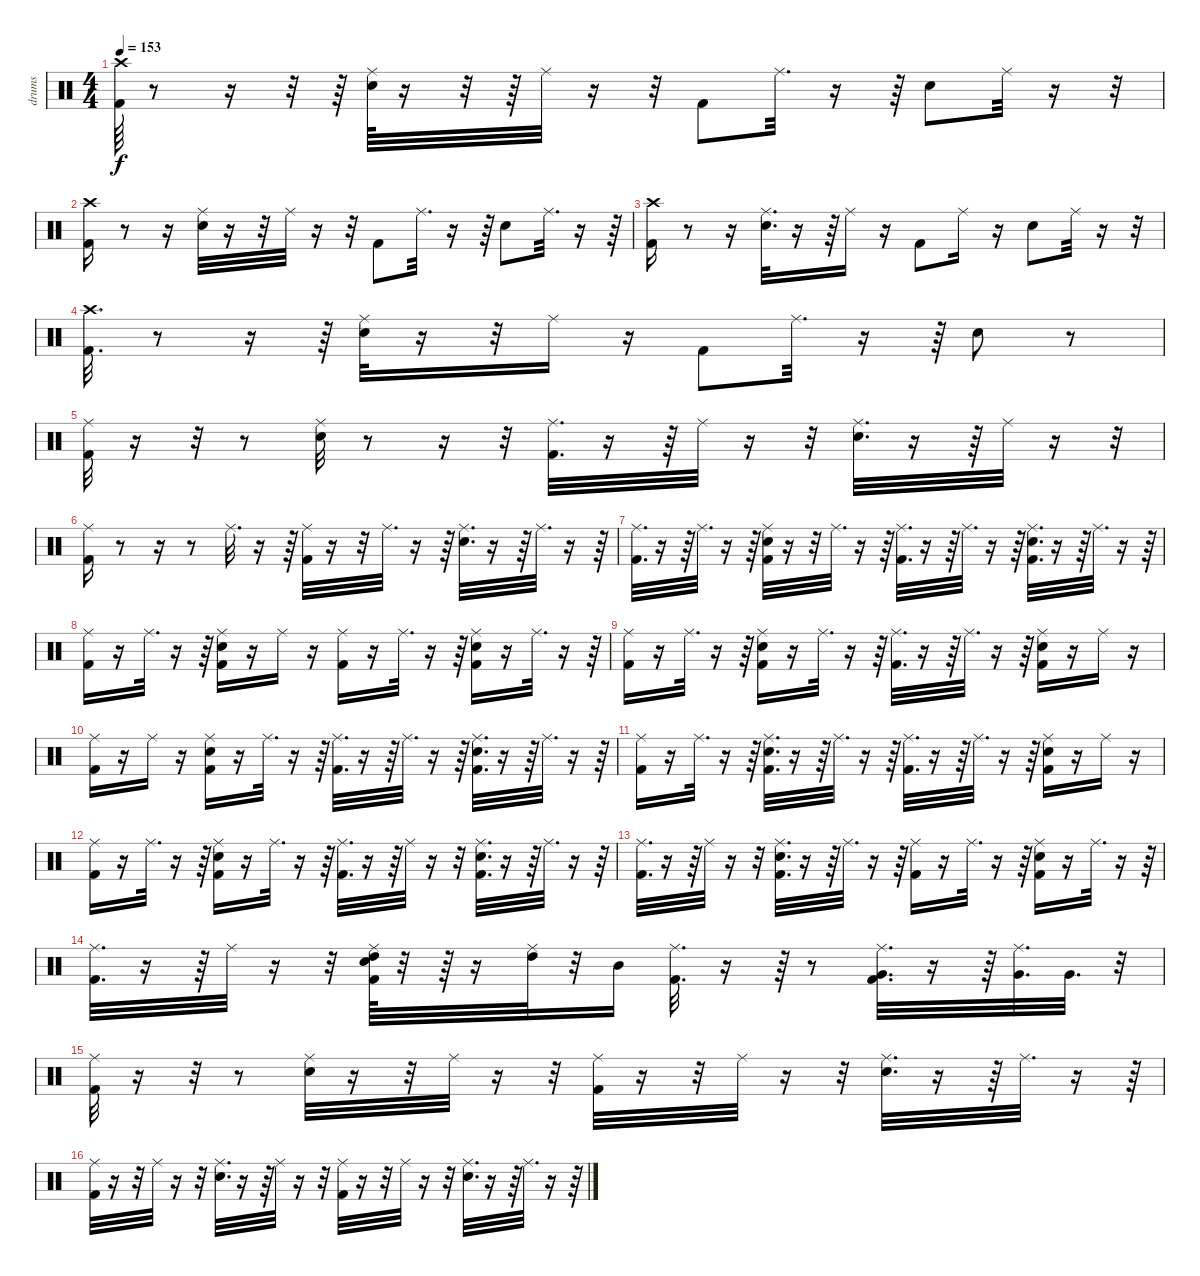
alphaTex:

\track ("drums" "drums") {instrument percussion}
\staff {score}
\articulation defaults
\ts (4 4)
\tempo 153
\clef neutral
\ks c
("Crash high (hit)" "Kick (hit) 2").64{dy f} r.8 r.16 r.32 r.64 ("Ride (middle)" "Snare (hit) 2").64 r.16 r.32 r.64 "Ride (middle)".32 r.16 r.32 "Kick (hit) 2".8 "Ride (middle)".32{d} r.16 r.64 "Snare (hit) 2".8 "Ride (middle)".32 r.16 r.32 |
("Crash high (hit)" "Kick (hit) 2").16 r.8 r.16 ("Ride (middle)" "Snare (hit) 2").32 r.16 r.32 "Ride (middle)".32 r.16 r.32 "Kick (hit) 2".8 "Ride (middle)".32{d} r.16 r.64 "Snare (hit) 2".8 "Ride (middle)".32{d} r.16 r.64 |
("Crash high (hit)" "Kick (hit) 2").16 r.8 r.16 ("Ride (middle)" "Snare (hit) 2").32{d} r.16 r.64 "Ride (middle)".16 r.16 "Kick (hit) 2".8 "Ride (middle)".16 r.16 "Snare (hit) 2".8 "Ride (middle)".32 r.16 r.32 |
("Crash high (hit)" "Kick (hit) 2").32{d} r.8 r.16 r.64 ("Ride (middle)" "Snare (hit) 2").32 r.16 r.32 "Ride (middle)".16 r.16 "Kick (hit) 2".8 "Ride (middle)".32{d} r.16 r.64 "Snare (hit) 2".8 r.8 |
("Ride (middle)" "Kick (hit) 2").32 r.16 r.32 r.8 ("Ride (middle)" "Snare (hit) 2").32 r.8 r.16 r.32 ("Ride (middle)" "Kick (hit) 2").32{d} r.16 r.64 "Ride (middle)".32 r.16 r.32 ("Ride (middle)" "Snare (hit) 2").32{d} r.16 r.64 "Ride (middle)".32 r.16 r.32 |
("Ride (middle)" "Kick (hit) 2").16 r.8 r.16 r.8 "Ride (middle)".32{d} r.16 r.64 ("Ride (middle)" "Kick (hit) 2").32 r.16 r.32 "Ride (middle)".32{d} r.16 r.64 ("Ride (middle)" "Snare (hit) 2").32{d} r.16 r.64 "Ride (middle)".32{d} r.16 r.64 |
("Ride (middle)" "Kick (hit) 2").32{d} r.16 r.64 "Ride (middle)".32{d} r.16 r.64 ("Ride (middle)" "Snare (hit) 2" "Kick (hit) 2").32 r.16 r.32 "Ride (middle)".32{d} r.16 r.64 ("Ride (middle)" "Kick (hit) 2").32{d} r.16 r.64 "Ride (middle)".32{d} r.16 r.64 ("Ride (middle)" "Snare (hit) 2" "Kick (hit) 2").32{d} r.16 r.64 "Ride (middle)".32{d} r.16 r.64 |
("Ride (middle)" "Kick (hit) 2").16 r.16 "Ride (middle)".32{d} r.16 r.64 ("Ride (middle)" "Snare (hit) 2" "Kick (hit) 2").16 r.16 "Ride (middle)".16 r.16 ("Ride (middle)" "Kick (hit) 2").16 r.16 "Ride (middle)".32{d} r.16 r.64 ("Ride (middle)" "Snare (hit) 2" "Kick (hit) 2").16 r.16 "Ride (middle)".32{d} r.16 r.64 |
("Ride (middle)" "Kick (hit) 2").16 r.16 "Ride (middle)".32{d} r.16 r.64 ("Ride (middle)" "Snare (hit) 2" "Kick (hit) 2").16 r.16 "Ride (middle)".32{d} r.16 r.64 ("Ride (middle)" "Kick (hit) 2").32{d} r.16 r.64 "Ride (middle)".32{d} r.16 r.64 ("Ride (middle)" "Snare (hit) 2" "Kick (hit) 2").16 r.16 "Ride (middle)".16 r.16 |
("Ride (middle)" "Kick (hit) 2").16 r.16 "Ride (middle)".16 r.16 ("Ride (middle)" "Snare (hit) 2" "Kick (hit) 2").16 r.16 "Ride (middle)".32{d} r.16 r.64 ("Ride (middle)" "Kick (hit) 2").32{d} r.16 r.64 "Ride (middle)".32{d} r.16 r.64 ("Ride (middle)" "Snare (hit) 2" "Kick (hit) 2").32{d} r.16 r.64 "Ride (middle)".32{d} r.16 r.64 |
("Ride (middle)" "Kick (hit) 2").16 r.16 "Ride (middle)".32{d} r.16 r.64 ("Ride (middle)" "Snare (hit) 2" "Kick (hit) 2").32{d} r.16 r.64 "Ride (middle)".32{d} r.16 r.64 ("Ride (middle)" "Kick (hit) 2").32{d} r.16 r.64 "Ride (middle)".32{d} r.16 r.64 ("Ride (middle)" "Snare (hit) 2" "Kick (hit) 2").16 r.16 "Ride (middle)".16 r.16 |
("Ride (middle)" "Kick (hit) 2").16 r.16 "Ride (middle)".32{d} r.16 r.64 ("Ride (middle)" "Snare (hit) 2" "Kick (hit) 2").16 r.16 "Ride (middle)".32{d} r.16 r.64 ("Ride (middle)" "Kick (hit) 2").32{d} r.16 r.64 "Ride (middle)".32 r.16 r.32 ("Ride (middle)" "Snare (hit) 2" "Kick (hit) 2").32{d} r.16 r.64 "Ride (middle)".32{d} r.16 r.64 |
("Ride (middle)" "Kick (hit) 2").32{d} r.16 r.64 "Ride (middle)".32 r.16 r.32 ("Ride (middle)" "Snare (hit) 2" "Kick (hit) 2").32{d} r.16 r.64 "Ride (middle)".32{d} r.16 r.64 ("Ride (middle)" "Kick (hit) 2").16 r.16 "Ride (middle)".32{d} r.16 r.64 ("Ride (middle)" "Snare (hit) 2" "Kick (hit) 2").16 r.16 "Ride (middle)".32{d} r.16 r.64 |
("Ride (middle)" "Kick (hit) 2").32{d} r.16 r.64 "Ride (middle)".32 r.16 r.32 ("Ride (middle)" "High Tom (hit)" "Snare (hit) 2" "Kick (hit) 2").64 r.32 r.64 r.16 ("Ride (middle)" "High Tom (hit)").32 r.32 "Mid Tom (hit)".16 ("Ride (middle)" "Kick (hit) 2").32{d} r.16 r.64 r.8 ("Ride (middle)" "Very Low Tom (hit)" "Kick (hit) 2").32{d} r.16 r.64 ("Ride (middle)" "Very Low Tom (hit)").32{d} "Very Low Tom (hit)".32{d} r.32 |
("Ride (middle)" "Kick (hit) 2").32 r.16 r.32 r.8 ("Ride (middle)" "Snare (hit) 2").32 r.16 r.32 "Ride (middle)".32 r.16 r.32 ("Ride (middle)" "Kick (hit) 2").32 r.16 r.32 "Ride (middle)".32 r.16 r.32 ("Ride (middle)" "Snare (hit) 2").32{d} r.16 r.64 "Ride (middle)".32{d} r.16 r.64 |
("Ride (middle)" "Kick (hit) 2").32 r.16 r.32 "Ride (middle)".32 r.16 r.32 ("Ride (middle)" "Snare (hit) 2").32{d} r.16 r.64 "Ride (middle)".32 r.16 r.32 ("Ride (middle)" "Kick (hit) 2").32 r.16 r.32 "Ride (middle)".32 r.16 r.32 ("Ride (middle)" "Snare (hit) 2").32{d} r.16 r.64 "Ride (middle)".32{d} r.16 r.64
